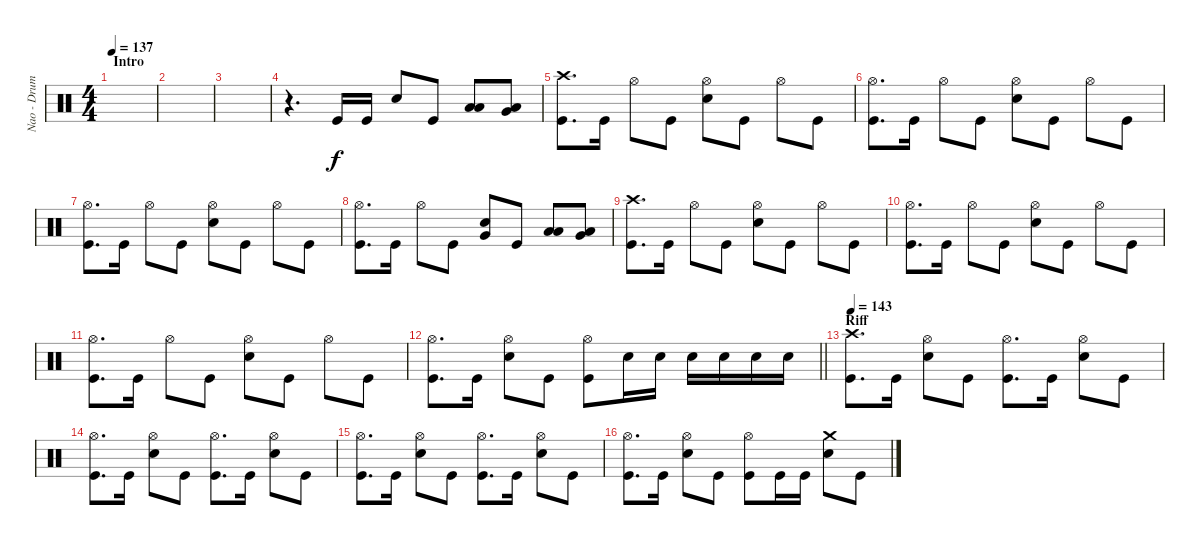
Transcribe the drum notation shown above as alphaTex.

\track ("Nao - Drums" "Nao - Drum") {instrument percussion}
\staff {score}
\articulation defaults
\ts (4 4)
\section ("" "Intro")
\tempo 137
\clef neutral
\ks c
|
|
|
r.4{d} "Kick (hit)".16 "Kick (hit)".16 "Snare (hit) 2".8 "Kick (hit)".8 ("Low Tom (hit)" "Low Floor Tom (hit)").8 ("Very Low Tom (hit)" "Low Floor Tom (hit)").8 |
("Crash high (hit)" "Kick (hit)").8{d} "Kick (hit)".16 "Hi-Hat (open)".8 "Kick (hit)".8 ("Snare (hit) 2" "Hi-Hat (open)").8 "Kick (hit)".8 "Hi-Hat (open)".8 "Kick (hit)".8 |
("Kick (hit)" "Hi-Hat (open)").8{d} "Kick (hit)".16 "Hi-Hat (open)".8 "Kick (hit)".8 ("Snare (hit) 2" "Hi-Hat (open)").8 "Kick (hit)".8 "Hi-Hat (open)".8 "Kick (hit)".8 |
("Kick (hit)" "Hi-Hat (open)").8{d} "Kick (hit)".16 "Hi-Hat (open)".8 "Kick (hit)".8 ("Snare (hit) 2" "Hi-Hat (open)").8 "Kick (hit)".8 "Hi-Hat (open)".8 "Kick (hit)".8 |
("Kick (hit)" "Hi-Hat (open)").8{d} "Kick (hit)".16 "Hi-Hat (open)".8 "Kick (hit)".8 ("Snare (hit) 2" "Very Low Tom (hit)").8 "Kick (hit)".8 ("Low Floor Tom (hit)" "Low Tom (hit)").8 ("Low Floor Tom (hit)" "Very Low Tom (hit)").8 |
("Crash high (hit)" "Kick (hit)").8{d} "Kick (hit)".16 "Hi-Hat (open)".8 "Kick (hit)".8 ("Snare (hit) 2" "Hi-Hat (open)").8 "Kick (hit)".8 "Hi-Hat (open)".8 "Kick (hit)".8 |
("Kick (hit)" "Hi-Hat (open)").8{d} "Kick (hit)".16 "Hi-Hat (open)".8 "Kick (hit)".8 ("Snare (hit) 2" "Hi-Hat (open)").8 "Kick (hit)".8 "Hi-Hat (open)".8 "Kick (hit)".8 |
("Kick (hit)" "Hi-Hat (open)").8{d} "Kick (hit)".16 "Hi-Hat (open)".8 "Kick (hit)".8 ("Snare (hit) 2" "Hi-Hat (open)").8 "Kick (hit)".8 "Hi-Hat (open)".8 "Kick (hit)".8 |
\barLineRight lightlight
("Kick (hit)" "Hi-Hat (open)").8{d} "Kick (hit)".16 ("Hi-Hat (open)" "Snare (hit) 2").8 "Kick (hit)".8 ("Hi-Hat (open)" "Kick (hit)").8 "Snare (hit) 2".16 "Snare (hit) 2".16 "Snare (hit) 2".16 "Snare (hit) 2".16 "Snare (hit) 2".16 "Snare (hit) 2".16 |
\section ("" "Riff")
\tempo 143
("Kick (hit)" "Crash high (hit)").8{d} "Kick (hit)".16 ("Hi-Hat (open)" "Snare (hit) 2").8 "Kick (hit)".8 ("Kick (hit)" "Hi-Hat (open)").8{d} "Kick (hit)".16 ("Hi-Hat (open)" "Snare (hit) 2").8 "Kick (hit)".8 |
("Kick (hit)" "Hi-Hat (open)").8{d} "Kick (hit)".16 ("Hi-Hat (open)" "Snare (hit) 2").8 "Kick (hit)".8 ("Kick (hit)" "Hi-Hat (open)").8{d} "Kick (hit)".16 ("Hi-Hat (open)" "Snare (hit) 2").8 "Kick (hit)".8 |
("Kick (hit)" "Hi-Hat (open)").8{d} "Kick (hit)".16 ("Hi-Hat (open)" "Snare (hit) 2").8 "Kick (hit)".8 ("Kick (hit)" "Hi-Hat (open)").8{d} "Kick (hit)".16 ("Hi-Hat (open)" "Snare (hit) 2").8 "Kick (hit)".8 |
("Kick (hit)" "Hi-Hat (open)").8{d} "Kick (hit)".16 ("Hi-Hat (open)" "Snare (hit) 2").8 "Kick (hit)".8 ("Kick (hit)" "Hi-Hat (open)").8 "Kick (hit)".16 "Kick (hit)".16 ("Snare (hit) 2" "Crash medium (hit)").8 "Kick (hit)".8
